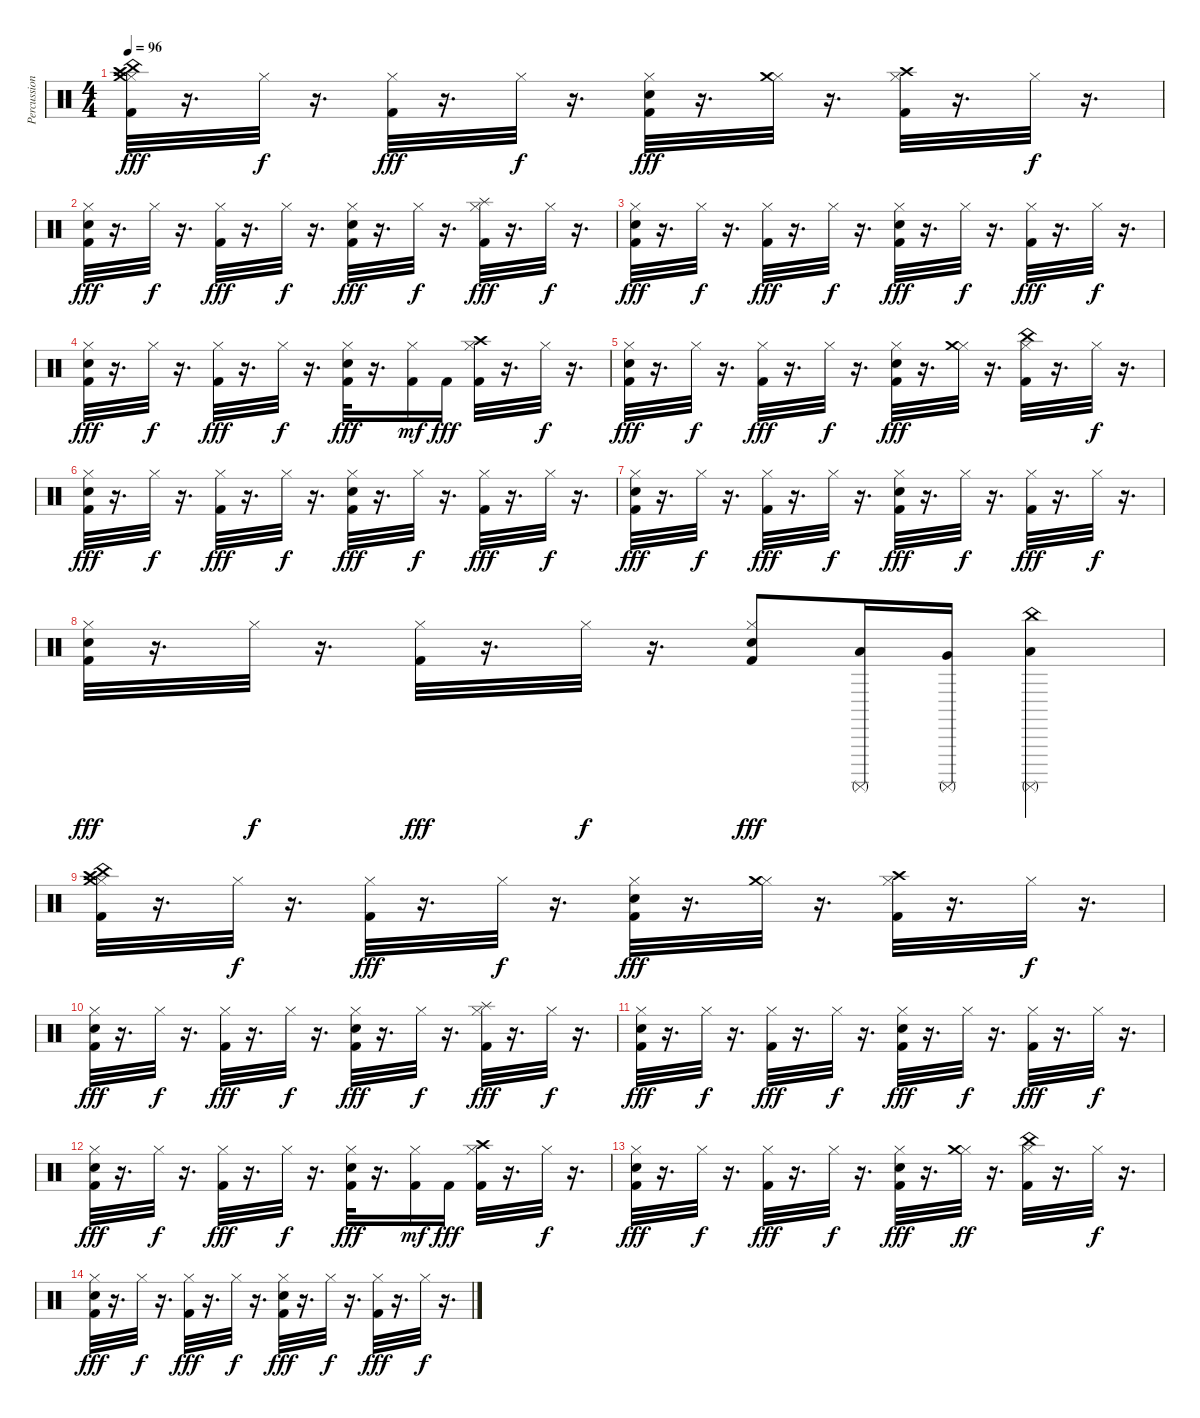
\track ("Percussion" "Percussion") {instrument percussion}
\staff {score}
\articulation defaults
\ts (4 4)
\tempo 96
\clef neutral
\ks c
("Hi-Hat (closed)" "Kick (hit) 2" "Crash high (hit)" "China (hit)" "Crash medium (hit)").32{dy fff} r.16{d} "Hi-Hat (closed)".32{dy f} r.16{d} ("Hi-Hat (closed)" "Kick (hit) 2").32{dy fff} r.16{d} "Hi-Hat (closed)".32{dy f} r.16{d} ("Hi-Hat (closed)" "Kick (hit) 2" "Snare (hit) 2").32{dy fff} r.16{d} ("Hi-Hat (closed)" "Crash medium (hit)").32 r.16{d} ("Hi-Hat (closed)" "Kick (hit) 2" "Crash high (hit)").32 r.16{d} "Hi-Hat (closed)".32{dy f} r.16{d} |
("Hi-Hat (closed)" "Kick (hit) 2" "Snare (hit) 2").32{dy fff} r.16{d} "Hi-Hat (closed)".32{dy f} r.16{d} ("Hi-Hat (closed)" "Kick (hit) 2").32{dy fff} r.16{d} "Hi-Hat (closed)".32{dy f} r.16{d} ("Hi-Hat (closed)" "Kick (hit) 2" "Snare (hit) 2").32{dy fff} r.16{d} "Hi-Hat (closed)".32{dy f} r.16{d} ("Hi-Hat (closed)" "Kick (hit) 2" "Splash (hit)").32{dy fff} r.16{d} "Hi-Hat (closed)".32{dy f} r.16{d} |
("Hi-Hat (closed)" "Kick (hit) 2" "Snare (hit) 2").32{dy fff} r.16{d} "Hi-Hat (closed)".32{dy f} r.16{d} ("Hi-Hat (closed)" "Kick (hit) 2").32{dy fff} r.16{d} "Hi-Hat (closed)".32{dy f} r.16{d} ("Hi-Hat (closed)" "Kick (hit) 2" "Snare (hit) 2").32{dy fff} r.16{d} "Hi-Hat (closed)".32{dy f} r.16{d} ("Hi-Hat (closed)" "Kick (hit) 2").32{dy fff} r.16{d} "Hi-Hat (closed)".32{dy f} r.16{d} |
("Hi-Hat (closed)" "Kick (hit) 2" "Snare (hit) 2").32{dy fff} r.16{d} "Hi-Hat (closed)".32{dy f} r.16{d} ("Hi-Hat (closed)" "Kick (hit) 2").32{dy fff} r.16{d} "Hi-Hat (closed)".32{dy f} r.16{d} ("Hi-Hat (closed)" "Kick (hit) 2" "Snare (hit) 2").32{dy fff} r.16{d} ("Hi-Hat (closed)" "Kick (hit) 2").16{dy mf} "Kick (hit) 2".16{dy fff} ("Hi-Hat (closed)" "Kick (hit) 2" "Crash high (hit)").32 r.16{d} "Hi-Hat (closed)".32{dy f} r.16{d} |
("Hi-Hat (closed)" "Kick (hit) 2" "Snare (hit) 2").32{dy fff} r.16{d} "Hi-Hat (closed)".32{dy f} r.16{d} ("Hi-Hat (closed)" "Kick (hit) 2").32{dy fff} r.16{d} "Hi-Hat (closed)".32{dy f} r.16{d} ("Hi-Hat (closed)" "Kick (hit) 2" "Snare (hit) 2").32{dy fff} r.16{d} ("Hi-Hat (closed)" "Crash medium (hit)").32 r.16{d} ("Hi-Hat (closed)" "Kick (hit) 2" "China (hit)").32 r.16{d} "Hi-Hat (closed)".32{dy f} r.16{d} |
("Hi-Hat (closed)" "Kick (hit) 2" "Snare (hit) 2").32{dy fff} r.16{d} "Hi-Hat (closed)".32{dy f} r.16{d} ("Hi-Hat (closed)" "Kick (hit) 2").32{dy fff} r.16{d} "Hi-Hat (closed)".32{dy f} r.16{d} ("Hi-Hat (closed)" "Kick (hit) 2" "Snare (hit) 2").32{dy fff} r.16{d} "Hi-Hat (closed)".32{dy f} r.16{d} ("Hi-Hat (closed)" "Kick (hit) 2").32{dy fff} r.16{d} "Hi-Hat (closed)".32{dy f} r.16{d} |
("Hi-Hat (closed)" "Kick (hit) 2" "Snare (hit) 2").32{dy fff} r.16{d} "Hi-Hat (closed)".32{dy f} r.16{d} ("Hi-Hat (closed)" "Kick (hit) 2").32{dy fff} r.16{d} "Hi-Hat (closed)".32{dy f} r.16{d} ("Hi-Hat (closed)" "Kick (hit) 2" "Snare (hit) 2").32{dy fff} r.16{d} "Hi-Hat (closed)".32{dy f} r.16{d} ("Hi-Hat (closed)" "Kick (hit) 2").32{dy fff} r.16{d} "Hi-Hat (closed)".32{dy f} r.16{d} |
("Hi-Hat (closed)" "Kick (hit) 2" "Snare (hit) 2").32{dy fff} r.16{d} "Hi-Hat (closed)".32{dy f} r.16{d} ("Hi-Hat (closed)" "Kick (hit) 2").32{dy fff} r.16{d} "Hi-Hat (closed)".32{dy f} r.16{d} ("Hi-Hat (closed)" "Kick (hit) 2" "Snare (hit) 2").8{dy fff} ("Low Tom (hit)" "Surdo (mute)").16 ("Very Low Tom (hit)" "Surdo (mute)").16 ("China (hit)" "Low Floor Tom (hit)" "Surdo (mute)").4 |
("Hi-Hat (closed)" "Kick (hit) 2" "Crash high (hit)" "China (hit)" "Crash medium (hit)").32 r.16{d} "Hi-Hat (closed)".32{dy f} r.16{d} ("Hi-Hat (closed)" "Kick (hit) 2").32{dy fff} r.16{d} "Hi-Hat (closed)".32{dy f} r.16{d} ("Hi-Hat (closed)" "Kick (hit) 2" "Snare (hit) 2").32{dy fff} r.16{d} ("Hi-Hat (closed)" "Crash medium (hit)").32 r.16{d} ("Hi-Hat (closed)" "Kick (hit) 2" "Crash high (hit)").32 r.16{d} "Hi-Hat (closed)".32{dy f} r.16{d} |
("Hi-Hat (closed)" "Kick (hit) 2" "Snare (hit) 2").32{dy fff} r.16{d} "Hi-Hat (closed)".32{dy f} r.16{d} ("Hi-Hat (closed)" "Kick (hit) 2").32{dy fff} r.16{d} "Hi-Hat (closed)".32{dy f} r.16{d} ("Hi-Hat (closed)" "Kick (hit) 2" "Snare (hit) 2").32{dy fff} r.16{d} "Hi-Hat (closed)".32{dy f} r.16{d} ("Hi-Hat (closed)" "Kick (hit) 2" "Splash (hit)").32{dy fff volume 0} r.16{d} "Hi-Hat (closed)".32{dy f} r.16{d} |
("Hi-Hat (closed)" "Kick (hit) 2" "Snare (hit) 2").32{dy fff} r.16{d} "Hi-Hat (closed)".32{dy f} r.16{d} ("Hi-Hat (closed)" "Kick (hit) 2").32{dy fff} r.16{d} "Hi-Hat (closed)".32{dy f} r.16{d} ("Hi-Hat (closed)" "Kick (hit) 2" "Snare (hit) 2").32{dy fff} r.16{d} "Hi-Hat (closed)".32{dy f} r.16{d} ("Hi-Hat (closed)" "Kick (hit) 2").32{dy fff} r.16{d} "Hi-Hat (closed)".32{dy f} r.16{d} |
("Hi-Hat (closed)" "Kick (hit) 2" "Snare (hit) 2").32{dy fff} r.16{d} "Hi-Hat (closed)".32{dy f} r.16{d} ("Hi-Hat (closed)" "Kick (hit) 2").32{dy fff} r.16{d} "Hi-Hat (closed)".32{dy f} r.16{d} ("Hi-Hat (closed)" "Kick (hit) 2" "Snare (hit) 2").32{dy fff} r.16{d} ("Hi-Hat (closed)" "Kick (hit) 2").16{dy mf} "Kick (hit) 2".16{dy fff} ("Hi-Hat (closed)" "Kick (hit) 2" "Crash high (hit)").32 r.16{d} "Hi-Hat (closed)".32{dy f} r.16{d} |
("Hi-Hat (closed)" "Kick (hit) 2" "Snare (hit) 2").32{dy fff} r.16{d} "Hi-Hat (closed)".32{dy f} r.16{d} ("Hi-Hat (closed)" "Kick (hit) 2").32{dy fff} r.16{d} "Hi-Hat (closed)".32{dy f} r.16{d} ("Hi-Hat (closed)" "Kick (hit) 2" "Snare (hit) 2").32{dy fff} r.16{d} ("Hi-Hat (closed)" "Crash medium (hit)").32{dy ff} r.16{d} ("Hi-Hat (closed)" "Kick (hit) 2" "China (hit)").32 r.16{d} "Hi-Hat (closed)".32{dy f} r.16{d} |
("Hi-Hat (closed)" "Kick (hit) 2" "Snare (hit) 2").32{dy fff} r.16{d} "Hi-Hat (closed)".32{dy f} r.16{d} ("Hi-Hat (closed)" "Kick (hit) 2").32{dy fff} r.16{d} "Hi-Hat (closed)".32{dy f} r.16{d} ("Hi-Hat (closed)" "Kick (hit) 2" "Snare (hit) 2").32{dy fff} r.16{d} "Hi-Hat (closed)".32{dy f} r.16{d} ("Hi-Hat (closed)" "Kick (hit) 2").32{dy fff} r.16{d} "Hi-Hat (closed)".32{dy f} r.16{d}
